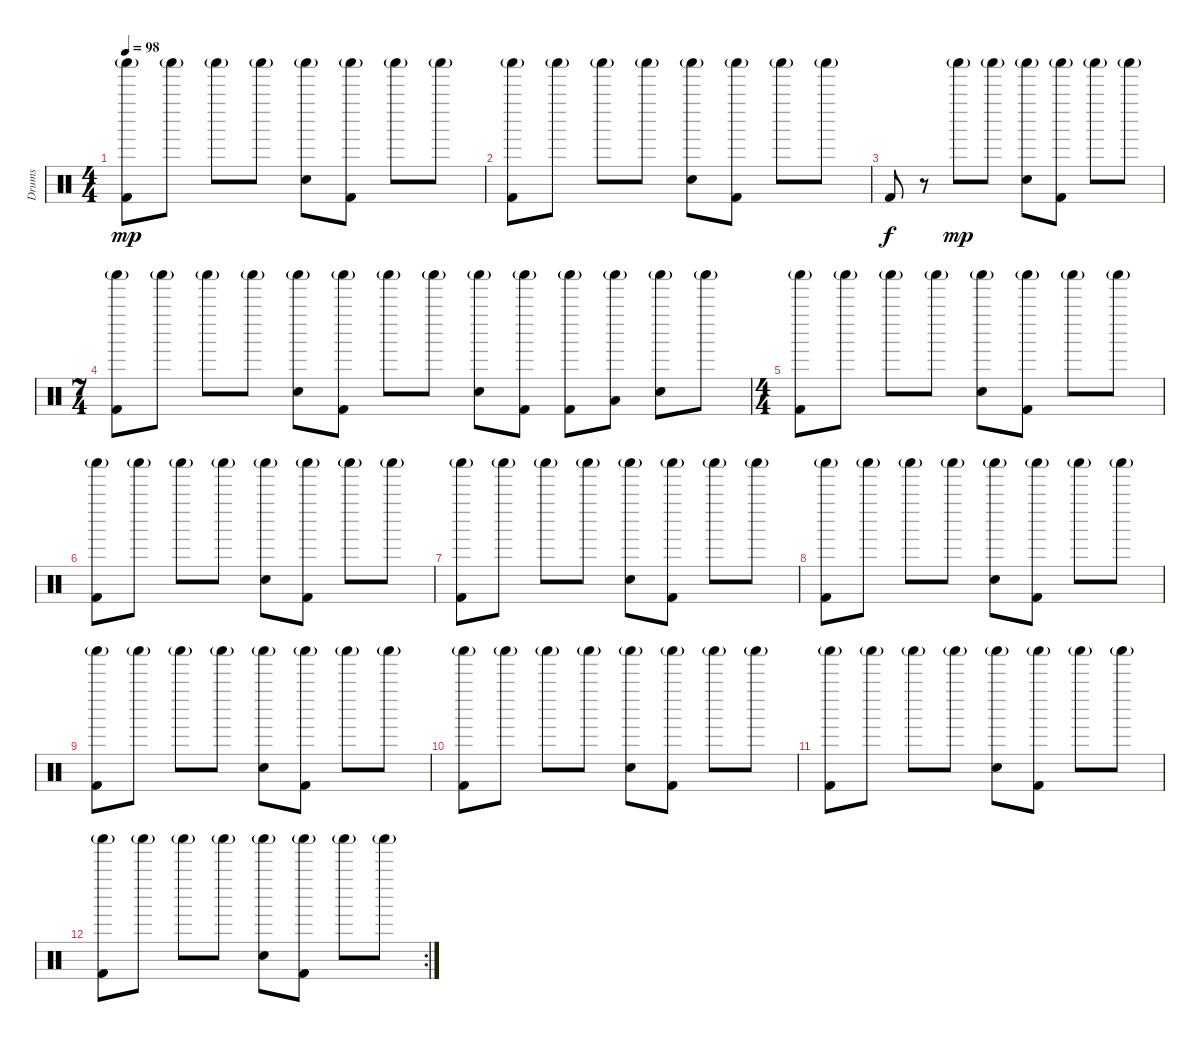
\track ("Drums" "Drums") {instrument percussion}
\staff {score}
\articulation defaults
\ts (4 4)
\tempo 98
\clef neutral
\ks c
("Shaker (hit)"{g} "Kick (hit) 2").8{dy mp volume 9} "Shaker (hit)"{g}.8 "Shaker (hit)"{g}.8 "Shaker (hit)"{g}.8 ("Shaker (hit)"{g} "Snare (hit) 2").8 ("Shaker (hit)"{g} "Kick (hit) 2").8 "Shaker (hit)"{g}.8 "Shaker (hit)"{g}.8 |
("Shaker (hit)"{g} "Kick (hit) 2").8{volume 9} "Shaker (hit)"{g}.8 "Shaker (hit)"{g}.8 "Shaker (hit)"{g}.8 ("Shaker (hit)"{g} "Snare (hit) 2").8 ("Shaker (hit)"{g} "Kick (hit) 2").8 "Shaker (hit)"{g}.8 "Shaker (hit)"{g}.8 |
"Kick (hit) 2".8{dy f volume 9} r.8 "Shaker (hit)"{g}.8{dy mp} "Shaker (hit)"{g}.8 ("Shaker (hit)"{g} "Snare (hit) 2").8 ("Shaker (hit)"{g} "Kick (hit) 2").8 "Shaker (hit)"{g}.8 "Shaker (hit)"{g}.8 |
\ts (7 4)
("Shaker (hit)"{g} "Kick (hit) 2").8 "Shaker (hit)"{g}.8 "Shaker (hit)"{g}.8 "Shaker (hit)"{g}.8 ("Shaker (hit)"{g} "Snare (hit) 2").8 ("Shaker (hit)"{g} "Kick (hit) 2").8 "Shaker (hit)"{g}.8 "Shaker (hit)"{g}.8 ("Shaker (hit)"{g} "Snare (hit) 2").8 ("Shaker (hit)"{g} "Kick (hit) 2").8 ("Shaker (hit)"{g} "Kick (hit) 2").8 ("Shaker (hit)"{g} "Low Tom (hit)").8 ("Shaker (hit)"{g} "Snare (hit) 2").8 "Shaker (hit)"{g}.8 |
\ts (4 4)
("Shaker (hit)"{g} "Kick (hit) 2").8 "Shaker (hit)"{g}.8 "Shaker (hit)"{g}.8 "Shaker (hit)"{g}.8 ("Shaker (hit)"{g} "Snare (hit) 2").8 ("Shaker (hit)"{g} "Kick (hit) 2").8 "Shaker (hit)"{g}.8 "Shaker (hit)"{g}.8 |
("Shaker (hit)"{g} "Kick (hit) 2").8{volume 9} "Shaker (hit)"{g}.8 "Shaker (hit)"{g}.8 "Shaker (hit)"{g}.8 ("Shaker (hit)"{g} "Snare (hit) 2").8 ("Shaker (hit)"{g} "Kick (hit) 2").8 "Shaker (hit)"{g}.8 "Shaker (hit)"{g}.8 |
("Shaker (hit)"{g} "Kick (hit) 2").8{volume 9} "Shaker (hit)"{g}.8 "Shaker (hit)"{g}.8 "Shaker (hit)"{g}.8 ("Shaker (hit)"{g} "Snare (hit) 2").8 ("Shaker (hit)"{g} "Kick (hit) 2").8 "Shaker (hit)"{g}.8 "Shaker (hit)"{g}.8 |
("Shaker (hit)"{g} "Kick (hit) 2").8{volume 9} "Shaker (hit)"{g}.8 "Shaker (hit)"{g}.8 "Shaker (hit)"{g}.8 ("Shaker (hit)"{g} "Snare (hit) 2").8 ("Shaker (hit)"{g} "Kick (hit) 2").8 "Shaker (hit)"{g}.8 "Shaker (hit)"{g}.8 |
("Shaker (hit)"{g} "Kick (hit) 2").8{volume 9} "Shaker (hit)"{g}.8 "Shaker (hit)"{g}.8 "Shaker (hit)"{g}.8 ("Shaker (hit)"{g} "Snare (hit) 2").8 ("Shaker (hit)"{g} "Kick (hit) 2").8 "Shaker (hit)"{g}.8 "Shaker (hit)"{g}.8 |
("Shaker (hit)"{g} "Kick (hit) 2").8{volume 9} "Shaker (hit)"{g}.8 "Shaker (hit)"{g}.8 "Shaker (hit)"{g}.8 ("Shaker (hit)"{g} "Snare (hit) 2").8 ("Shaker (hit)"{g} "Kick (hit) 2").8 "Shaker (hit)"{g}.8 "Shaker (hit)"{g}.8 |
("Shaker (hit)"{g} "Kick (hit) 2").8{volume 9} "Shaker (hit)"{g}.8 "Shaker (hit)"{g}.8 "Shaker (hit)"{g}.8 ("Shaker (hit)"{g} "Snare (hit) 2").8 ("Shaker (hit)"{g} "Kick (hit) 2").8 "Shaker (hit)"{g}.8 "Shaker (hit)"{g}.8 |
\rc 2
("Shaker (hit)"{g} "Kick (hit) 2").8{volume 9} "Shaker (hit)"{g}.8 "Shaker (hit)"{g}.8 "Shaker (hit)"{g}.8 ("Shaker (hit)"{g} "Snare (hit) 2").8 ("Shaker (hit)"{g} "Kick (hit) 2").8 "Shaker (hit)"{g}.8 "Shaker (hit)"{g}.8
